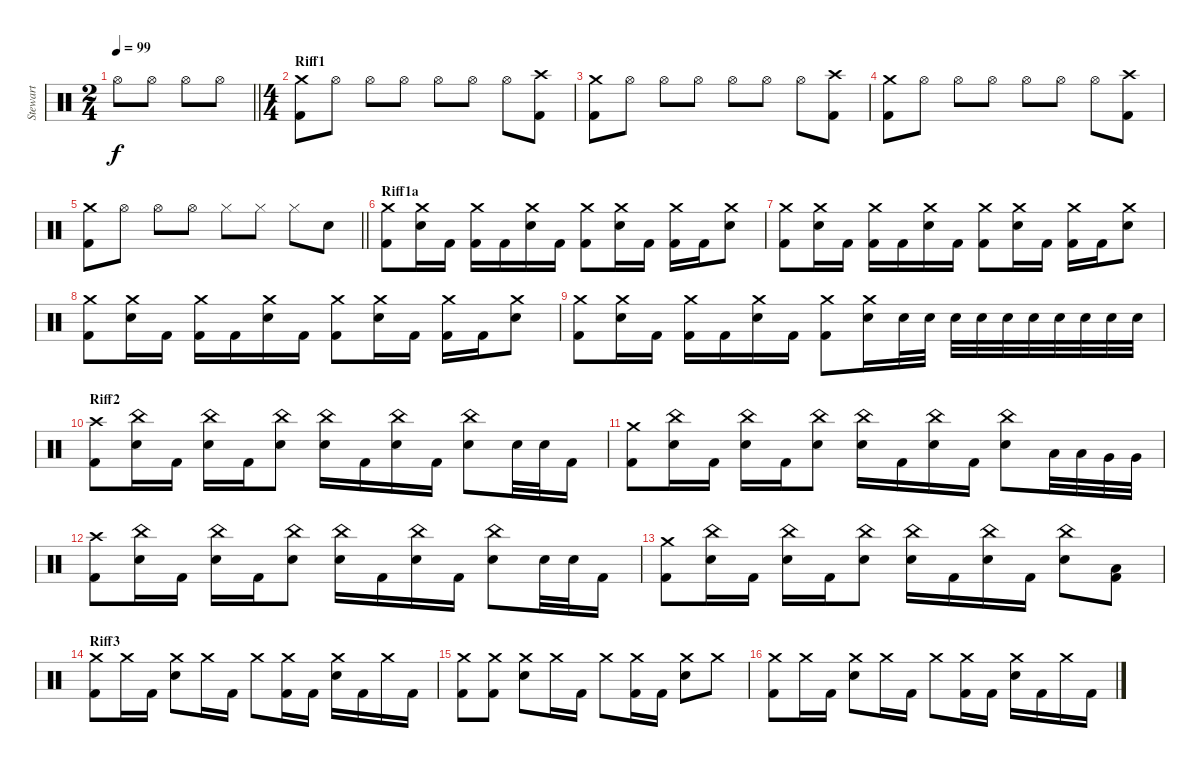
\track ("Stewart" "Stewart") {instrument percussion}
\staff {score}
\articulation defaults
\ts (2 4)
\tempo 99
\clef neutral
\barLineRight lightlight
\ks c "Hi-Hat (open)".8{dy f} "Hi-Hat (open)".8 "Hi-Hat (open)".8 "Hi-Hat (open)".8
|
\ts (4 4)
\section ("" "Riff1")
("Crash medium (hit)" "Kick (hit) 2").8 "Hi-Hat (open)".8 "Hi-Hat (open)".8 "Hi-Hat (open)".8 "Hi-Hat (open)".8 "Hi-Hat (open)".8 "Hi-Hat (open)".8 ("Crash high (hit)" "Kick (hit) 2").8 |
("Crash medium (hit)" "Kick (hit) 2").8 "Hi-Hat (open)".8 "Hi-Hat (open)".8 "Hi-Hat (open)".8 "Hi-Hat (open)".8 "Hi-Hat (open)".8 "Hi-Hat (open)".8 ("Crash high (hit)" "Kick (hit) 2").8 |
("Crash medium (hit)" "Kick (hit) 2").8 "Hi-Hat (open)".8 "Hi-Hat (open)".8 "Hi-Hat (open)".8 "Hi-Hat (open)".8 "Hi-Hat (open)".8 "Hi-Hat (open)".8 ("Crash high (hit)" "Kick (hit) 2").8 |
\barLineRight lightlight
("Crash medium (hit)" "Kick (hit) 2").8 "Hi-Hat (open)".8 "Hi-Hat (open)".8 "Hi-Hat (open)".8 "Hi-Hat (closed)".8 "Hi-Hat (closed)".8 "Hi-Hat (closed)".8 "Electric Snare (hit)".8 |
\section ("" "Riff1a")
("Crash medium (hit)" "Kick (hit) 2").8 ("Crash medium (hit)" "Electric Snare (hit)").16 "Kick (hit) 2".16 ("Crash medium (hit)" "Kick (hit) 2").16 "Kick (hit) 2".16 ("Crash medium (hit)" "Electric Snare (hit)").16 "Kick (hit) 2".16 ("Crash medium (hit)" "Kick (hit) 2").8 ("Crash medium (hit)" "Electric Snare (hit)").16 "Kick (hit) 2".16 ("Crash medium (hit)" "Kick (hit) 2").16 "Kick (hit) 2".16 ("Crash medium (hit)" "Electric Snare (hit)").8 |
("Crash medium (hit)" "Kick (hit) 2").8 ("Crash medium (hit)" "Electric Snare (hit)").16 "Kick (hit) 2".16 ("Crash medium (hit)" "Kick (hit) 2").16 "Kick (hit) 2".16 ("Crash medium (hit)" "Electric Snare (hit)").16 "Kick (hit) 2".16 ("Crash medium (hit)" "Kick (hit) 2").8 ("Crash medium (hit)" "Electric Snare (hit)").16 "Kick (hit) 2".16 ("Crash medium (hit)" "Kick (hit) 2").16 "Kick (hit) 2".16 ("Crash medium (hit)" "Electric Snare (hit)").8 |
("Crash medium (hit)" "Kick (hit) 2").8 ("Crash medium (hit)" "Electric Snare (hit)").16 "Kick (hit) 2".16 ("Crash medium (hit)" "Kick (hit) 2").16 "Kick (hit) 2".16 ("Crash medium (hit)" "Electric Snare (hit)").16 "Kick (hit) 2".16 ("Crash medium (hit)" "Kick (hit) 2").8 ("Crash medium (hit)" "Electric Snare (hit)").16 "Kick (hit) 2".16 ("Crash medium (hit)" "Kick (hit) 2").16 "Kick (hit) 2".16 ("Crash medium (hit)" "Electric Snare (hit)").8 |
("Crash medium (hit)" "Kick (hit) 2").8 ("Crash medium (hit)" "Electric Snare (hit)").16 "Kick (hit) 2".16 ("Crash medium (hit)" "Kick (hit) 2").16 "Kick (hit) 2".16 ("Crash medium (hit)" "Electric Snare (hit)").16 "Kick (hit) 2".16 ("Crash medium (hit)" "Kick (hit) 2").8 ("Crash medium (hit)" "Electric Snare (hit)").16 "Electric Snare (hit)".32 "Electric Snare (hit)".32 "Electric Snare (hit)".32 "Electric Snare (hit)".32 "Electric Snare (hit)".32 "Electric Snare (hit)".32 "Electric Snare (hit)".32 "Electric Snare (hit)".32 "Electric Snare (hit)".32 "Electric Snare (hit)".32 |
\section ("" "Riff2")
("Crash high (hit)" "Kick (hit) 2").8 ("China (hit)" "Electric Snare (hit)").16 "Kick (hit) 2".16 ("China (hit)" "Electric Snare (hit)").16 "Kick (hit) 2".16 ("China (hit)" "Electric Snare (hit)").8 ("China (hit)" "Electric Snare (hit)").16 "Kick (hit) 2".16 ("China (hit)" "Electric Snare (hit)").16 "Kick (hit) 2".16 ("China (hit)" "Electric Snare (hit)").8 "Electric Snare (hit)".32 "Electric Snare (hit)".32 "Kick (hit) 2".16 |
("Crash medium (hit)" "Kick (hit) 2").8 ("China (hit)" "Electric Snare (hit)").16 "Kick (hit) 2".16 ("China (hit)" "Electric Snare (hit)").16 "Kick (hit) 2".16 ("China (hit)" "Electric Snare (hit)").8 ("China (hit)" "Electric Snare (hit)").16 "Kick (hit) 2".16 ("China (hit)" "Electric Snare (hit)").16 "Kick (hit) 2".16 ("China (hit)" "Electric Snare (hit)").8 "Low Tom (hit)".32 "Low Tom (hit)".32 "Very Low Tom (hit)".32 "Very Low Tom (hit)".32 |
("Crash high (hit)" "Kick (hit) 2").8 ("China (hit)" "Electric Snare (hit)").16 "Kick (hit) 2".16 ("China (hit)" "Electric Snare (hit)").16 "Kick (hit) 2".16 ("China (hit)" "Electric Snare (hit)").8 ("China (hit)" "Electric Snare (hit)").16 "Kick (hit) 2".16 ("China (hit)" "Electric Snare (hit)").16 "Kick (hit) 2".16 ("China (hit)" "Electric Snare (hit)").8 "Electric Snare (hit)".32 "Electric Snare (hit)".32 "Kick (hit) 2".16 |
("Crash medium (hit)" "Kick (hit) 2").8 ("China (hit)" "Electric Snare (hit)").16 "Kick (hit) 2".16 ("China (hit)" "Electric Snare (hit)").16 "Kick (hit) 2".16 ("China (hit)" "Electric Snare (hit)").8 ("China (hit)" "Electric Snare (hit)").16 "Kick (hit) 2".16 ("China (hit)" "Electric Snare (hit)").16 "Kick (hit) 2".16 ("China (hit)" "Electric Snare (hit)").8 ("Low Tom (hit)" "Kick (hit) 2").8 |
\section ("" "Riff3")
("Crash medium (hit)" "Kick (hit) 2").8 "Crash medium (hit)".16 "Kick (hit) 2".16 ("Crash medium (hit)" "Electric Snare (hit)").8 "Crash medium (hit)".16 "Kick (hit) 2".16 "Crash medium (hit)".8 ("Crash medium (hit)" "Kick (hit) 2").16 "Kick (hit) 2".16 ("Crash medium (hit)" "Electric Snare (hit)").16 "Kick (hit) 2".16 "Crash medium (hit)".16 "Kick (hit) 2".16 |
("Crash medium (hit)" "Kick (hit) 2").8 ("Crash medium (hit)" "Kick (hit) 2").8 ("Crash medium (hit)" "Electric Snare (hit)").8 "Crash medium (hit)".16 "Kick (hit) 2".16 "Crash medium (hit)".8 ("Crash medium (hit)" "Kick (hit) 2").16 "Kick (hit) 2".16 ("Crash medium (hit)" "Electric Snare (hit)").8 "Crash medium (hit)".8 |
("Crash medium (hit)" "Kick (hit) 2").8 "Crash medium (hit)".16 "Kick (hit) 2".16 ("Crash medium (hit)" "Electric Snare (hit)").8 "Crash medium (hit)".16 "Kick (hit) 2".16 "Crash medium (hit)".8 ("Crash medium (hit)" "Kick (hit) 2").16 "Kick (hit) 2".16 ("Crash medium (hit)" "Electric Snare (hit)").16 "Kick (hit) 2".16 "Crash medium (hit)".16 "Kick (hit) 2".16
